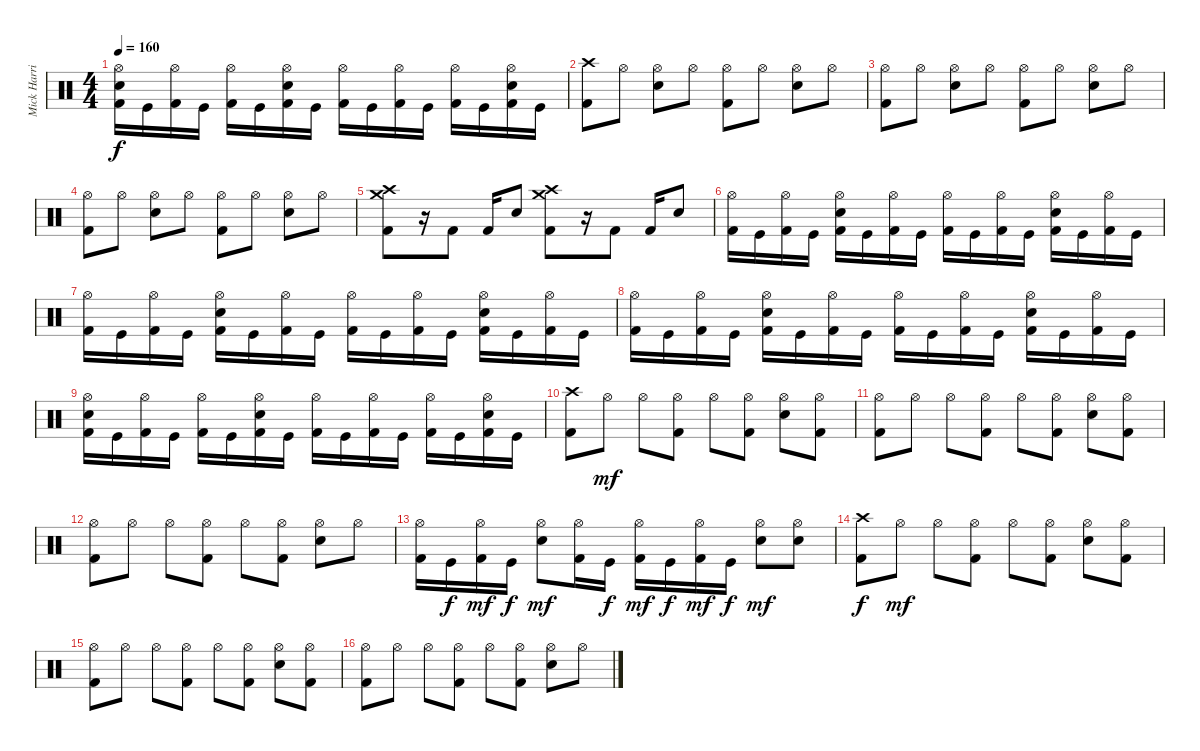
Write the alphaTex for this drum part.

\track ("Mick Harris (Drums)" "Mick Harri") {instrument percussion}
\staff {score}
\articulation defaults
\ts (4 4)
\tempo 160
\clef neutral
\ks c
("Kick (hit) 2" "Electric Snare (hit)" "Hi-Hat (open)").16{dy f} "Kick (hit)".16 ("Kick (hit) 2" "Hi-Hat (open)").16 "Kick (hit)".16 ("Kick (hit) 2" "Hi-Hat (open)").16 "Kick (hit)".16 ("Kick (hit) 2" "Electric Snare (hit)" "Hi-Hat (open)").16 "Kick (hit)".16 ("Kick (hit) 2" "Hi-Hat (open)").16 "Kick (hit)".16 ("Kick (hit) 2" "Hi-Hat (open)").16 "Kick (hit)".16 ("Kick (hit) 2" "Hi-Hat (open)").16 "Kick (hit)".16 ("Kick (hit) 2" "Electric Snare (hit)" "Hi-Hat (open)").16 "Kick (hit)".16 |
("Kick (hit) 2" "Crash high (hit)").8 "Hi-Hat (open)".8 ("Electric Snare (hit)" "Hi-Hat (open)").8 "Hi-Hat (open)".8 ("Kick (hit) 2" "Hi-Hat (open)").8 "Hi-Hat (open)".8 ("Electric Snare (hit)" "Hi-Hat (open)").8 "Hi-Hat (open)".8 |
("Kick (hit) 2" "Hi-Hat (open)").8 "Hi-Hat (open)".8 ("Electric Snare (hit)" "Hi-Hat (open)").8 "Hi-Hat (open)".8 ("Kick (hit) 2" "Hi-Hat (open)").8 "Hi-Hat (open)".8 ("Electric Snare (hit)" "Hi-Hat (open)").8 "Hi-Hat (open)".8 |
("Kick (hit) 2" "Hi-Hat (open)").8 "Hi-Hat (open)".8 ("Electric Snare (hit)" "Hi-Hat (open)").8 "Hi-Hat (open)".8 ("Kick (hit) 2" "Hi-Hat (open)").8 "Hi-Hat (open)".8 ("Electric Snare (hit)" "Hi-Hat (open)").8 "Hi-Hat (open)".8 |
("Kick (hit) 2" "Crash medium (hit)" "Crash high (hit)").8 r.16 "Kick (hit) 2".8 "Kick (hit) 2".16 "Electric Snare (hit)".8 ("Kick (hit) 2" "Crash high (hit)" "Crash medium (hit)").8 r.16 "Kick (hit) 2".8 "Kick (hit) 2".16 "Electric Snare (hit)".8 |
("Kick (hit) 2" "Hi-Hat (open)").16 "Kick (hit)".16 ("Kick (hit) 2" "Hi-Hat (open)").16 "Kick (hit)".16 ("Kick (hit) 2" "Electric Snare (hit)" "Hi-Hat (open)").16 "Kick (hit)".16 ("Kick (hit) 2" "Hi-Hat (open)").16 "Kick (hit)".16 ("Kick (hit) 2" "Hi-Hat (open)").16 "Kick (hit)".16 ("Kick (hit) 2" "Hi-Hat (open)").16 "Kick (hit)".16 ("Kick (hit) 2" "Electric Snare (hit)" "Hi-Hat (open)").16 "Kick (hit)".16 ("Kick (hit) 2" "Hi-Hat (open)").16 "Kick (hit)".16 |
("Kick (hit) 2" "Hi-Hat (open)").16 "Kick (hit)".16 ("Kick (hit) 2" "Hi-Hat (open)").16 "Kick (hit)".16 ("Kick (hit) 2" "Electric Snare (hit)" "Hi-Hat (open)").16 "Kick (hit)".16 ("Kick (hit) 2" "Hi-Hat (open)").16 "Kick (hit)".16 ("Kick (hit) 2" "Hi-Hat (open)").16 "Kick (hit)".16 ("Kick (hit) 2" "Hi-Hat (open)").16 "Kick (hit)".16 ("Kick (hit) 2" "Electric Snare (hit)" "Hi-Hat (open)").16 "Kick (hit)".16 ("Kick (hit) 2" "Hi-Hat (open)").16 "Kick (hit)".16 |
("Kick (hit) 2" "Hi-Hat (open)").16 "Kick (hit)".16 ("Kick (hit) 2" "Hi-Hat (open)").16 "Kick (hit)".16 ("Kick (hit) 2" "Electric Snare (hit)" "Hi-Hat (open)").16 "Kick (hit)".16 ("Kick (hit) 2" "Hi-Hat (open)").16 "Kick (hit)".16 ("Kick (hit) 2" "Hi-Hat (open)").16 "Kick (hit)".16 ("Kick (hit) 2" "Hi-Hat (open)").16 "Kick (hit)".16 ("Kick (hit) 2" "Electric Snare (hit)" "Hi-Hat (open)").16 "Kick (hit)".16 ("Kick (hit) 2" "Hi-Hat (open)").16 "Kick (hit)".16 |
("Kick (hit) 2" "Electric Snare (hit)" "Hi-Hat (open)").16 "Kick (hit)".16 ("Kick (hit) 2" "Hi-Hat (open)").16 "Kick (hit)".16 ("Kick (hit) 2" "Hi-Hat (open)").16 "Kick (hit)".16 ("Kick (hit) 2" "Electric Snare (hit)" "Hi-Hat (open)").16 "Kick (hit)".16 ("Kick (hit) 2" "Hi-Hat (open)").16 "Kick (hit)".16 ("Kick (hit) 2" "Hi-Hat (open)").16 "Kick (hit)".16 ("Kick (hit) 2" "Hi-Hat (open)").16 "Kick (hit)".16 ("Kick (hit) 2" "Electric Snare (hit)" "Hi-Hat (open)").16 "Kick (hit)".16 |
("Kick (hit) 2" "Crash high (hit)").8 "Hi-Hat (open)".8{dy mf} "Hi-Hat (open)".8 ("Kick (hit) 2" "Hi-Hat (open)").8 "Hi-Hat (open)".8 ("Kick (hit) 2" "Hi-Hat (open)").8 ("Electric Snare (hit)" "Hi-Hat (open)").8 ("Kick (hit) 2" "Hi-Hat (open)").8 |
("Kick (hit) 2" "Hi-Hat (open)").8 "Hi-Hat (open)".8 "Hi-Hat (open)".8 ("Kick (hit) 2" "Hi-Hat (open)").8 "Hi-Hat (open)".8 ("Kick (hit) 2" "Hi-Hat (open)").8 ("Electric Snare (hit)" "Hi-Hat (open)").8 ("Kick (hit) 2" "Hi-Hat (open)").8 |
("Kick (hit) 2" "Hi-Hat (open)").8 "Hi-Hat (open)".8 "Hi-Hat (open)".8 ("Kick (hit) 2" "Hi-Hat (open)").8 "Hi-Hat (open)".8 ("Kick (hit) 2" "Hi-Hat (open)").8 ("Electric Snare (hit)" "Hi-Hat (open)").8 "Hi-Hat (open)".8 |
("Kick (hit) 2" "Hi-Hat (open)").16 "Kick (hit)".16{dy f} ("Kick (hit) 2" "Hi-Hat (open)").16{dy mf} "Kick (hit)".16{dy f} ("Electric Snare (hit)" "Hi-Hat (open)").8{dy mf} ("Kick (hit) 2" "Hi-Hat (open)").16 "Kick (hit)".16{dy f} ("Kick (hit) 2" "Hi-Hat (open)").16{dy mf} "Kick (hit)".16{dy f} ("Kick (hit) 2" "Hi-Hat (open)").16{dy mf} "Kick (hit)".16{dy f} ("Electric Snare (hit)" "Hi-Hat (open)").8{dy mf} ("Electric Snare (hit)" "Hi-Hat (open)").8 |
("Kick (hit) 2" "Crash high (hit)").8{dy f} "Hi-Hat (open)".8{dy mf} "Hi-Hat (open)".8 ("Kick (hit) 2" "Hi-Hat (open)").8 "Hi-Hat (open)".8 ("Kick (hit) 2" "Hi-Hat (open)").8 ("Electric Snare (hit)" "Hi-Hat (open)").8 ("Kick (hit) 2" "Hi-Hat (open)").8 |
("Kick (hit) 2" "Hi-Hat (open)").8 "Hi-Hat (open)".8 "Hi-Hat (open)".8 ("Kick (hit) 2" "Hi-Hat (open)").8 "Hi-Hat (open)".8 ("Kick (hit) 2" "Hi-Hat (open)").8 ("Electric Snare (hit)" "Hi-Hat (open)").8 ("Kick (hit) 2" "Hi-Hat (open)").8 |
("Kick (hit) 2" "Hi-Hat (open)").8 "Hi-Hat (open)".8 "Hi-Hat (open)".8 ("Kick (hit) 2" "Hi-Hat (open)").8 "Hi-Hat (open)".8 ("Kick (hit) 2" "Hi-Hat (open)").8 ("Electric Snare (hit)" "Hi-Hat (open)").8 "Hi-Hat (open)".8
